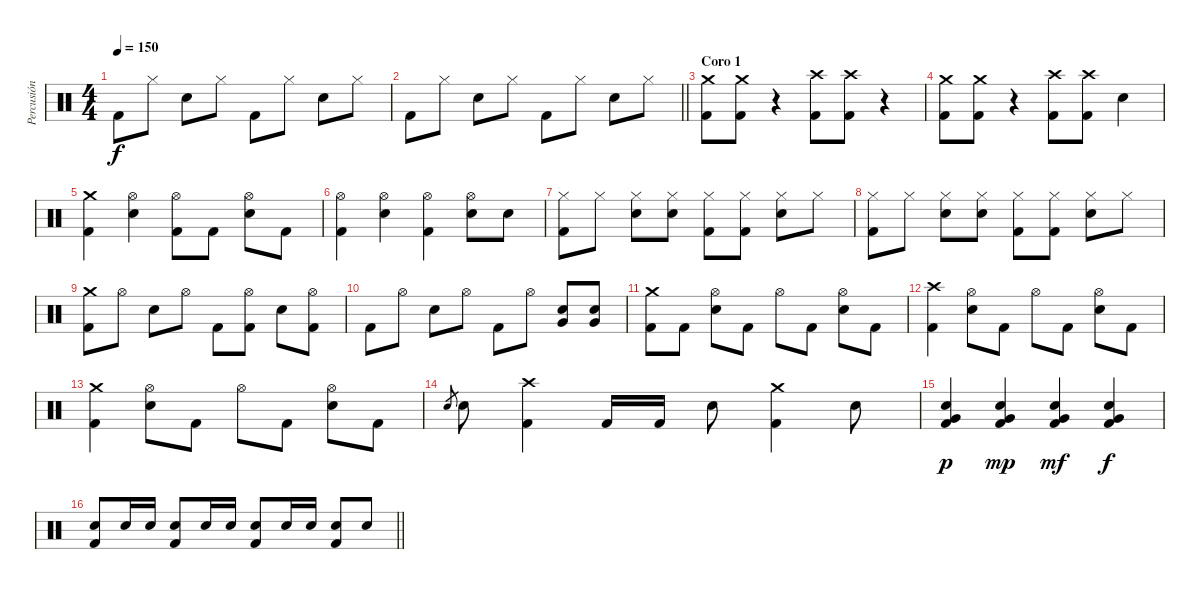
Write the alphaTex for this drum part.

\track ("Percusión" "Percusión") {instrument percussion}
\staff {score}
\articulation defaults
\ts (4 4)
\tempo 150
\clef neutral
\ks c "Kick (hit) 2".8{dy f} "Hi-Hat (closed)".8 "Electric Snare (hit)".8 "Hi-Hat (closed)".8 "Kick (hit) 2".8 "Hi-Hat (closed)".8 "Electric Snare (hit)".8 "Hi-Hat (closed)".8
|
\barLineRight lightlight "Kick (hit) 2".8 "Hi-Hat (closed)".8 "Electric Snare (hit)".8 "Hi-Hat (closed)".8 "Kick (hit) 2".8 "Hi-Hat (closed)".8 "Electric Snare (hit)".8 "Hi-Hat (closed)".8
|
\section ("" "Coro 1")
("Crash medium (hit)" "Kick (hit) 2").8 ("Crash medium (hit)" "Kick (hit) 2").8 r.4 ("Crash high (hit)" "Kick (hit) 2").8 ("Crash high (hit)" "Kick (hit) 2").8 r.4 |
("Crash medium (hit)" "Kick (hit) 2").8 ("Crash medium (hit)" "Kick (hit) 2").8 r.4 ("Crash high (hit)" "Kick (hit) 2").8 ("Crash high (hit)" "Kick (hit) 2").8 "Electric Snare (hit)".4 |
("Crash medium (hit)" "Kick (hit) 2").4 ("Hi-Hat (open)" "Electric Snare (hit)").4 ("Hi-Hat (open)" "Kick (hit) 2").8 "Kick (hit) 2".8 ("Hi-Hat (open)" "Electric Snare (hit)").8 "Kick (hit) 2".8 |
("Hi-Hat (open)" "Kick (hit) 2").4 ("Hi-Hat (open)" "Electric Snare (hit)").4 ("Hi-Hat (open)" "Kick (hit) 2").4 ("Hi-Hat (open)" "Electric Snare (hit)").8 "Electric Snare (hit)".8 |
("Hi-Hat (closed)" "Kick (hit) 2").8 "Hi-Hat (closed)".8 ("Hi-Hat (closed)" "Electric Snare (hit)").8 ("Hi-Hat (closed)" "Electric Snare (hit)").8 ("Hi-Hat (closed)" "Kick (hit) 2").8 ("Hi-Hat (closed)" "Kick (hit) 2").8 ("Hi-Hat (closed)" "Electric Snare (hit)").8 "Hi-Hat (closed)".8 |
("Hi-Hat (closed)" "Kick (hit) 2").8 "Hi-Hat (closed)".8 ("Hi-Hat (closed)" "Electric Snare (hit)").8 ("Hi-Hat (closed)" "Electric Snare (hit)").8 ("Hi-Hat (closed)" "Kick (hit) 2").8 ("Hi-Hat (closed)" "Kick (hit) 2").8 ("Hi-Hat (closed)" "Electric Snare (hit)").8 "Hi-Hat (closed)".8 |
("Crash medium (hit)" "Kick (hit) 2").8 "Hi-Hat (open)".8 "Electric Snare (hit)".8 "Hi-Hat (open)".8 "Kick (hit) 2".8 ("Hi-Hat (open)" "Kick (hit) 2").8 "Electric Snare (hit)".8 ("Hi-Hat (open)" "Kick (hit) 2").8 |
"Kick (hit) 2".8 "Hi-Hat (open)".8 "Electric Snare (hit)".8 "Hi-Hat (open)".8 "Kick (hit) 2".8 "Hi-Hat (open)".8 ("Very Low Tom (hit)" "Electric Snare (hit)").8 ("Very Low Tom (hit)" "Electric Snare (hit)").8 |
("Crash medium (hit)" "Kick (hit) 2").8 "Kick (hit) 2".8 ("Hi-Hat (open)" "Electric Snare (hit)").8 "Kick (hit) 2".8 "Hi-Hat (open)".8 "Kick (hit) 2".8 ("Hi-Hat (open)" "Electric Snare (hit)").8 "Kick (hit) 2".8 |
("Crash high (hit)" "Kick (hit) 2").4 ("Hi-Hat (open)" "Electric Snare (hit)").8 "Kick (hit) 2".8 "Hi-Hat (open)".8 "Kick (hit) 2".8 ("Hi-Hat (open)" "Electric Snare (hit)").8 "Kick (hit) 2".8 |
("Crash medium (hit)" "Kick (hit) 2").4 ("Hi-Hat (open)" "Electric Snare (hit)").8 "Kick (hit) 2".8 "Hi-Hat (open)".8 "Kick (hit) 2".8 ("Hi-Hat (open)" "Electric Snare (hit)").8 "Kick (hit) 2".8 |
"Electric Snare (hit)".8{gr} "Electric Snare (hit)".8 ("Crash high (hit)" "Kick (hit) 2").4 "Kick (hit) 2".16 "Kick (hit) 2".16 "Electric Snare (hit)".8 ("Crash medium (hit)" "Kick (hit) 2").4 "Electric Snare (hit)".8 |
("Very Low Tom (hit)" "Electric Snare (hit)" "Kick (hit) 2").4{dy p} ("Very Low Tom (hit)" "Electric Snare (hit)" "Kick (hit) 2").4{dy mp} ("Very Low Tom (hit)" "Electric Snare (hit)" "Kick (hit) 2").4{dy mf} ("Very Low Tom (hit)" "Electric Snare (hit)" "Kick (hit) 2").4{dy f} |
\barLineRight lightlight
("Electric Snare (hit)" "Kick (hit) 2").8 "Electric Snare (hit)".16 "Electric Snare (hit)".16 ("Electric Snare (hit)" "Kick (hit) 2").8 "Electric Snare (hit)".16 "Electric Snare (hit)".16 ("Electric Snare (hit)" "Kick (hit) 2").8 "Electric Snare (hit)".16 "Electric Snare (hit)".16 ("Electric Snare (hit)" "Kick (hit) 2").8 "Electric Snare (hit)".8
